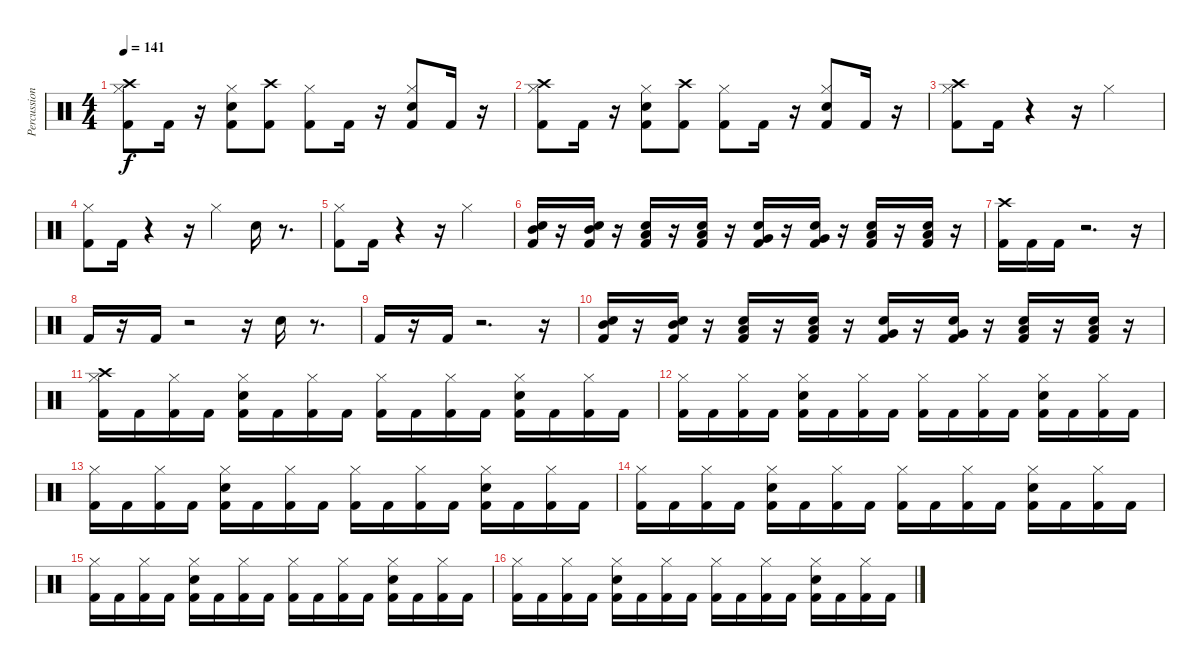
\track ("Percussion" "Percussion") {instrument percussion}
\staff {score}
\articulation defaults
\ts (4 4)
\tempo 141
\clef neutral
\ks c
("Kick (hit) 2" "Hi-Hat (closed)" "Crash high (hit)").8{dy f} "Kick (hit) 2".16 r.16 ("Kick (hit) 2" "Snare (hit) 2" "Hi-Hat (closed)").8 ("Kick (hit) 2" "Crash high (hit)").8 ("Kick (hit) 2" "Hi-Hat (closed)").8 "Kick (hit) 2".16 r.16 ("Kick (hit) 2" "Snare (hit) 2" "Hi-Hat (closed)").8 "Kick (hit) 2".16 r.16 |
("Kick (hit) 2" "Hi-Hat (closed)" "Crash high (hit)").8 "Kick (hit) 2".16 r.16 ("Kick (hit) 2" "Snare (hit) 2" "Hi-Hat (closed)").8 ("Kick (hit) 2" "Crash high (hit)").8 ("Kick (hit) 2" "Hi-Hat (closed)").8 "Kick (hit) 2".16 r.16 ("Kick (hit) 2" "Snare (hit) 2" "Hi-Hat (closed)").8 "Kick (hit) 2".16 r.16 |
("Kick (hit) 2" "Hi-Hat (closed)" "Crash high (hit)").8 "Kick (hit) 2".16 r.4 r.16 "Hi-Hat (closed)".2 |
("Kick (hit) 2" "Hi-Hat (closed)").8 "Kick (hit) 2".16 r.4 r.16 "Hi-Hat (closed)".4 "Snare (hit) 2".16 r.8{d} |
("Kick (hit) 2" "Hi-Hat (closed)").8 "Kick (hit) 2".16 r.4 r.16 "Hi-Hat (closed)".2 |
("Kick (hit) 2" "Snare (hit) 2" "Mid Tom (hit)").16 r.16 ("Kick (hit) 2" "Snare (hit) 2" "Mid Tom (hit)").16 r.16 ("Kick (hit) 2" "Snare (hit) 2" "Low Tom (hit)").16 r.16 ("Kick (hit) 2" "Snare (hit) 2" "Low Tom (hit)").16 r.16 ("Kick (hit) 2" "Snare (hit) 2" "Very Low Tom (hit)").16 r.16 ("Kick (hit) 2" "Snare (hit) 2" "Very Low Tom (hit)").16 r.16 ("Kick (hit) 2" "Snare (hit) 2" "Low Floor Tom (hit)").16 r.16 ("Kick (hit) 2" "Snare (hit) 2" "Low Floor Tom (hit)").16 r.16 |
("Kick (hit) 2" "Crash high (hit)").16 "Kick (hit) 2".16 "Kick (hit) 2".16 r.2{d} r.16 |
"Kick (hit) 2".16 r.16 "Kick (hit) 2".16 r.2 r.16 "Snare (hit) 2".16 r.8{d} |
"Kick (hit) 2".16 r.16 "Kick (hit) 2".16 r.2{d} r.16 |
("Kick (hit) 2" "Snare (hit) 2" "Mid Tom (hit)").16 r.16 ("Kick (hit) 2" "Snare (hit) 2" "Mid Tom (hit)").16 r.16 ("Kick (hit) 2" "Snare (hit) 2" "Low Tom (hit)").16 r.16 ("Kick (hit) 2" "Snare (hit) 2" "Low Tom (hit)").16 r.16 ("Kick (hit) 2" "Snare (hit) 2" "Very Low Tom (hit)").16 r.16 ("Kick (hit) 2" "Snare (hit) 2" "Very Low Tom (hit)").16 r.16 ("Kick (hit) 2" "Snare (hit) 2" "Low Floor Tom (hit)").16 r.16 ("Kick (hit) 2" "Snare (hit) 2" "Low Floor Tom (hit)").16 r.16 |
("Kick (hit) 2" "Hi-Hat (closed)" "Crash high (hit)").16 "Kick (hit) 2".16 ("Kick (hit) 2" "Hi-Hat (closed)").16 "Kick (hit) 2".16 ("Kick (hit) 2" "Snare (hit) 2" "Hi-Hat (closed)").16 "Kick (hit) 2".16 ("Kick (hit) 2" "Hi-Hat (closed)").16 "Kick (hit) 2".16 ("Kick (hit) 2" "Hi-Hat (closed)").16 "Kick (hit) 2".16 ("Kick (hit) 2" "Hi-Hat (closed)").16 "Kick (hit) 2".16 ("Kick (hit) 2" "Snare (hit) 2" "Hi-Hat (closed)").16 "Kick (hit) 2".16 ("Kick (hit) 2" "Hi-Hat (closed)").16 "Kick (hit) 2".16 |
("Kick (hit) 2" "Hi-Hat (closed)").16 "Kick (hit) 2".16 ("Kick (hit) 2" "Hi-Hat (closed)").16 "Kick (hit) 2".16 ("Kick (hit) 2" "Snare (hit) 2" "Hi-Hat (closed)").16 "Kick (hit) 2".16 ("Kick (hit) 2" "Hi-Hat (closed)").16 "Kick (hit) 2".16 ("Kick (hit) 2" "Hi-Hat (closed)").16 "Kick (hit) 2".16 ("Kick (hit) 2" "Hi-Hat (closed)").16 "Kick (hit) 2".16 ("Kick (hit) 2" "Snare (hit) 2" "Hi-Hat (closed)").16 "Kick (hit) 2".16 ("Kick (hit) 2" "Hi-Hat (closed)").16 "Kick (hit) 2".16 |
("Kick (hit) 2" "Hi-Hat (closed)").16 "Kick (hit) 2".16 ("Kick (hit) 2" "Hi-Hat (closed)").16 "Kick (hit) 2".16 ("Kick (hit) 2" "Snare (hit) 2" "Hi-Hat (closed)").16 "Kick (hit) 2".16 ("Kick (hit) 2" "Hi-Hat (closed)").16 "Kick (hit) 2".16 ("Kick (hit) 2" "Hi-Hat (closed)").16 "Kick (hit) 2".16 ("Kick (hit) 2" "Hi-Hat (closed)").16 "Kick (hit) 2".16 ("Kick (hit) 2" "Snare (hit) 2" "Hi-Hat (closed)").16 "Kick (hit) 2".16 ("Kick (hit) 2" "Hi-Hat (closed)").16 "Kick (hit) 2".16 |
("Kick (hit) 2" "Hi-Hat (closed)").16 "Kick (hit) 2".16 ("Kick (hit) 2" "Hi-Hat (closed)").16 "Kick (hit) 2".16 ("Kick (hit) 2" "Snare (hit) 2" "Hi-Hat (closed)").16 "Kick (hit) 2".16 ("Kick (hit) 2" "Hi-Hat (closed)").16 "Kick (hit) 2".16 ("Kick (hit) 2" "Hi-Hat (closed)").16 "Kick (hit) 2".16 ("Kick (hit) 2" "Hi-Hat (closed)").16 "Kick (hit) 2".16 ("Kick (hit) 2" "Snare (hit) 2" "Hi-Hat (closed)").16 "Kick (hit) 2".16 ("Kick (hit) 2" "Hi-Hat (closed)").16 "Kick (hit) 2".16 |
("Kick (hit) 2" "Hi-Hat (closed)").16 "Kick (hit) 2".16 ("Kick (hit) 2" "Hi-Hat (closed)").16 "Kick (hit) 2".16 ("Kick (hit) 2" "Snare (hit) 2" "Hi-Hat (closed)").16 "Kick (hit) 2".16 ("Kick (hit) 2" "Hi-Hat (closed)").16 "Kick (hit) 2".16 ("Kick (hit) 2" "Hi-Hat (closed)").16 "Kick (hit) 2".16 ("Kick (hit) 2" "Hi-Hat (closed)").16 "Kick (hit) 2".16 ("Kick (hit) 2" "Snare (hit) 2" "Hi-Hat (closed)").16 "Kick (hit) 2".16 ("Kick (hit) 2" "Hi-Hat (closed)").16 "Kick (hit) 2".16 |
("Kick (hit) 2" "Hi-Hat (closed)").16 "Kick (hit) 2".16 ("Kick (hit) 2" "Hi-Hat (closed)").16 "Kick (hit) 2".16 ("Kick (hit) 2" "Snare (hit) 2" "Hi-Hat (closed)").16 "Kick (hit) 2".16 ("Kick (hit) 2" "Hi-Hat (closed)").16 "Kick (hit) 2".16 ("Kick (hit) 2" "Hi-Hat (closed)").16 "Kick (hit) 2".16 ("Kick (hit) 2" "Hi-Hat (closed)").16 "Kick (hit) 2".16 ("Kick (hit) 2" "Snare (hit) 2" "Hi-Hat (closed)").16 "Kick (hit) 2".16 ("Kick (hit) 2" "Hi-Hat (closed)").16 "Kick (hit) 2".16
